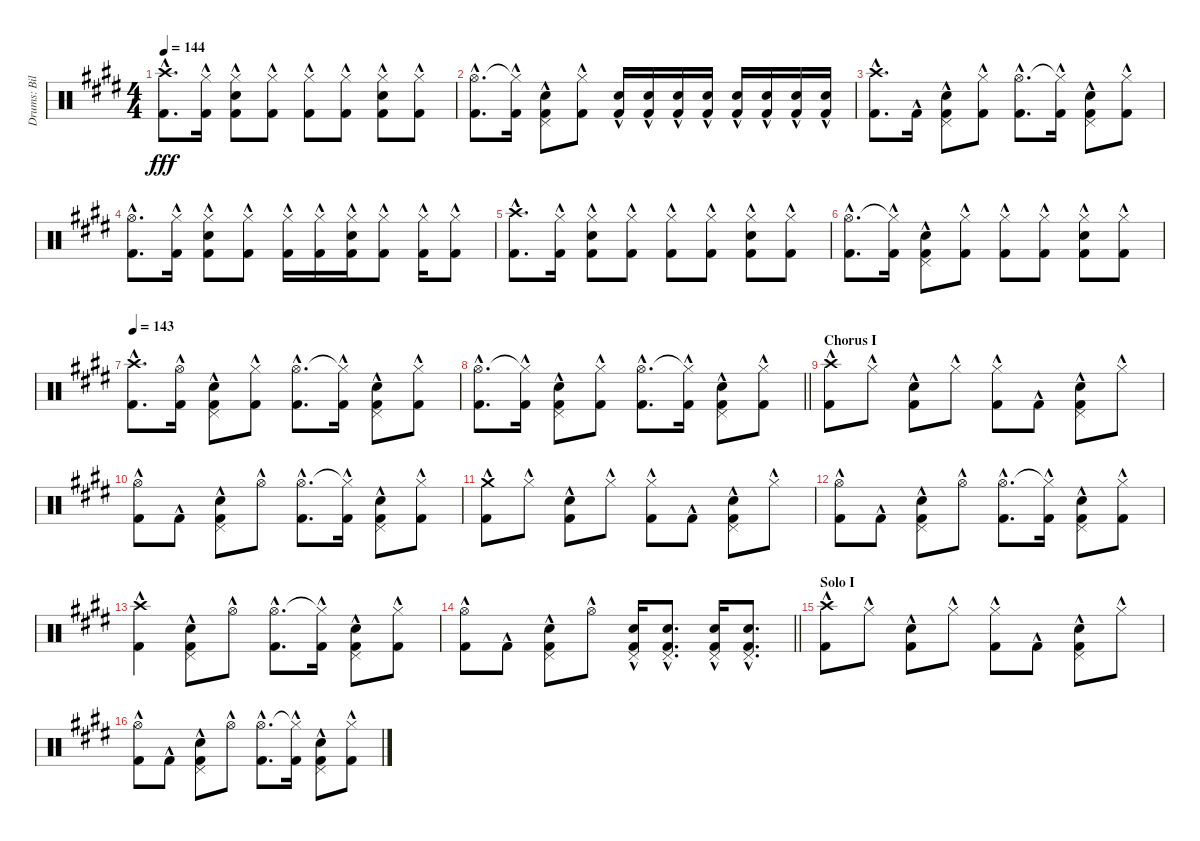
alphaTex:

\track ("Drums: Bill" "Drums: Bil") {instrument percussion}
\staff {score}
\articulation defaults
\ts (4 4)
\tempo 144
\clef neutral
\ks e
("Crash high (hit)"{hac} "Kick (hit) 2"{hac}).8{d dy fff} ("Hi-Hat (closed)"{hac} "Kick (hit) 2"{hac}).16 ("Hi-Hat (closed)"{hac} "Snare (hit) 2"{hac} "Kick (hit) 2"{hac}).8 ("Hi-Hat (closed)"{hac} "Kick (hit) 2"{hac}).8 ("Hi-Hat (closed)"{hac} "Kick (hit) 2"{hac}).8 ("Hi-Hat (closed)"{hac} "Kick (hit) 2"{hac}).8 ("Hi-Hat (closed)"{hac} "Snare (hit) 2"{hac} "Kick (hit) 2"{hac}).8 ("Hi-Hat (closed)"{hac} "Kick (hit) 2"{hac}).8 |
("Hi-Hat (open)"{hac} "Kick (hit) 2"{hac}).8{d} ("Hi-Hat (closed)"{t} "Kick (hit) 2"{hac}).16 ("Pedal Hi-Hat (hit)"{hac} "Snare (hit) 2"{hac} "Kick (hit) 2"{hac}).8 ("Hi-Hat (closed)"{hac} "Kick (hit) 2"{hac}).8 ("Snare (hit) 2"{hac} "Kick (hit) 2"{hac}).16 ("Snare (hit) 2"{hac} "Kick (hit) 2"{hac}).16 ("Snare (hit) 2"{hac} "Kick (hit) 2"{hac}).16 ("Snare (hit) 2"{hac} "Kick (hit) 2"{hac}).16 ("Snare (hit) 2"{hac} "Kick (hit) 2"{hac}).16 ("Snare (hit) 2"{hac} "Kick (hit) 2"{hac}).16 ("Snare (hit) 2"{hac} "Kick (hit) 2"{hac}).16 ("Snare (hit) 2"{hac} "Kick (hit) 2"{hac}).16 |
("Crash high (hit)"{hac} "Kick (hit) 2"{hac}).8{d} "Kick (hit) 2"{hac}.16 ("Pedal Hi-Hat (hit)"{hac} "Snare (hit) 2"{hac} "Kick (hit) 2"{hac}).8 ("Hi-Hat (closed)"{hac} "Kick (hit) 2"{hac}).8 ("Hi-Hat (open)"{hac} "Kick (hit) 2"{hac}).8{d} ("Hi-Hat (closed)"{t} "Kick (hit) 2"{hac}).16 ("Pedal Hi-Hat (hit)"{hac} "Snare (hit) 2"{hac} "Kick (hit) 2"{hac}).8 ("Hi-Hat (closed)"{hac} "Kick (hit) 2"{hac}).8 |
("Hi-Hat (open)"{hac} "Kick (hit) 2"{hac}).8{d} ("Hi-Hat (closed)"{hac} "Kick (hit) 2"{hac}).16 ("Hi-Hat (closed)"{hac} "Snare (hit) 2"{hac} "Kick (hit) 2"{hac}).8 ("Hi-Hat (closed)"{hac} "Kick (hit) 2"{hac}).8 ("Hi-Hat (closed)"{hac} "Kick (hit) 2"{hac}).16 ("Hi-Hat (closed)"{hac} "Kick (hit) 2"{hac}).16 ("Hi-Hat (closed)"{hac} "Snare (hit) 2"{hac} "Kick (hit) 2"{hac}).16 ("Hi-Hat (closed)"{hac} "Kick (hit) 2"{hac}).8 ("Hi-Hat (closed)"{hac} "Kick (hit) 2"{hac}).16 ("Hi-Hat (closed)"{hac} "Kick (hit) 2"{hac}).8 |
("Crash high (hit)"{hac} "Kick (hit) 2"{hac}).8{d} ("Hi-Hat (closed)"{hac} "Kick (hit) 2"{hac}).16 ("Hi-Hat (closed)"{hac} "Snare (hit) 2"{hac} "Kick (hit) 2"{hac}).8 ("Hi-Hat (closed)"{hac} "Kick (hit) 2"{hac}).8 ("Hi-Hat (closed)"{hac} "Kick (hit) 2"{hac}).8 ("Hi-Hat (closed)"{hac} "Kick (hit) 2"{hac}).8 ("Hi-Hat (closed)"{hac} "Snare (hit) 2"{hac} "Kick (hit) 2"{hac}).8 ("Hi-Hat (closed)"{hac} "Kick (hit) 2"{hac}).8 |
("Hi-Hat (open)"{hac} "Kick (hit) 2"{hac}).8{d} ("Hi-Hat (closed)"{t} "Kick (hit) 2"{hac}).16 ("Pedal Hi-Hat (hit)"{hac} "Snare (hit) 2"{hac} "Kick (hit) 2"{hac}).8 ("Hi-Hat (closed)"{hac} "Kick (hit) 2"{hac}).8 ("Hi-Hat (closed)"{hac} "Kick (hit) 2"{hac}).8 ("Hi-Hat (closed)"{hac} "Kick (hit) 2"{hac}).8 ("Hi-Hat (closed)"{hac} "Snare (hit) 2"{hac} "Kick (hit) 2"{hac}).8 ("Hi-Hat (closed)"{hac} "Kick (hit) 2"{hac}).8 |
\tempo 143
("Crash high (hit)"{hac} "Kick (hit) 2"{hac}).8{d} ("Hi-Hat (open)"{hac} "Kick (hit) 2"{hac}).16 ("Pedal Hi-Hat (hit)"{hac} "Snare (hit) 2"{hac} "Kick (hit) 2"{hac}).8 ("Hi-Hat (closed)"{hac} "Kick (hit) 2"{hac}).8 ("Hi-Hat (open)"{hac} "Kick (hit) 2"{hac}).8{d} ("Hi-Hat (closed)"{t} "Kick (hit) 2"{hac}).16 ("Pedal Hi-Hat (hit)"{hac} "Snare (hit) 2"{hac} "Kick (hit) 2"{hac}).8 ("Hi-Hat (closed)"{hac} "Kick (hit) 2"{hac}).8 |
\barLineRight lightlight
("Hi-Hat (open)"{hac} "Kick (hit) 2"{hac}).8{d} ("Hi-Hat (closed)"{t} "Kick (hit) 2"{hac}).16 ("Pedal Hi-Hat (hit)"{hac} "Snare (hit) 2"{hac} "Kick (hit) 2"{hac}).8 ("Hi-Hat (closed)"{hac} "Kick (hit) 2"{hac}).8 ("Hi-Hat (open)"{hac} "Kick (hit) 2"{hac}).8{d} ("Hi-Hat (closed)"{t} "Kick (hit) 2"{hac}).16 ("Pedal Hi-Hat (hit)"{hac} "Snare (hit) 2"{hac} "Kick (hit) 2"{hac}).8 ("Hi-Hat (closed)"{hac} "Kick (hit) 2"{hac}).8 |
\section ("" "Chorus I")
("Crash high (hit)"{hac} "Kick (hit) 2"{hac}).8 "Hi-Hat (closed)"{hac}.8 ("Snare (hit) 2"{hac} "Kick (hit) 2"{hac}).8 "Hi-Hat (closed)"{hac}.8 ("Hi-Hat (closed)"{hac} "Kick (hit) 2"{hac}).8 "Kick (hit) 2"{hac}.8 ("Pedal Hi-Hat (hit)"{hac} "Snare (hit) 2"{hac} "Kick (hit) 2"{hac}).8 "Hi-Hat (closed)"{hac}.8 |
("Hi-Hat (open)"{hac} "Kick (hit) 2"{hac}).8 "Kick (hit) 2"{hac}.8 ("Pedal Hi-Hat (hit)"{hac} "Snare (hit) 2"{hac} "Kick (hit) 2"{hac}).8 "Hi-Hat (open)"{hac}.8 ("Hi-Hat (open)"{hac} "Kick (hit) 2"{hac}).8{d} ("Hi-Hat (closed)"{t} "Kick (hit) 2"{hac}).16 ("Pedal Hi-Hat (hit)"{hac} "Snare (hit) 2"{hac} "Kick (hit) 2"{hac}).8 ("Hi-Hat (closed)"{hac} "Kick (hit) 2"{hac}).8 |
("Crash medium (hit)"{hac} "Kick (hit) 2"{hac}).8 "Hi-Hat (closed)"{hac}.8 ("Snare (hit) 2"{hac} "Kick (hit) 2"{hac}).8 "Hi-Hat (closed)"{hac}.8 ("Hi-Hat (closed)"{hac} "Kick (hit) 2"{hac}).8 "Kick (hit) 2"{hac}.8 ("Pedal Hi-Hat (hit)"{hac} "Snare (hit) 2"{hac} "Kick (hit) 2"{hac}).8 "Hi-Hat (closed)"{hac}.8 |
("Hi-Hat (open)"{hac} "Kick (hit) 2"{hac}).8 "Kick (hit) 2"{hac}.8 ("Pedal Hi-Hat (hit)"{hac} "Snare (hit) 2"{hac} "Kick (hit) 2"{hac}).8 "Hi-Hat (open)"{hac}.8 ("Hi-Hat (open)"{hac} "Kick (hit) 2"{hac}).8{d} ("Hi-Hat (closed)"{t} "Kick (hit) 2"{hac}).16 ("Pedal Hi-Hat (hit)"{hac} "Snare (hit) 2"{hac} "Kick (hit) 2"{hac}).8 ("Hi-Hat (closed)"{hac} "Kick (hit) 2"{hac}).8 |
("Crash high (hit)"{hac} "Kick (hit) 2"{hac}).4 ("Pedal Hi-Hat (hit)"{hac} "Snare (hit) 2"{hac} "Kick (hit) 2"{hac}).8 "Hi-Hat (open)"{hac}.8 ("Hi-Hat (open)"{hac} "Kick (hit) 2"{hac}).8{d} ("Hi-Hat (closed)"{t} "Kick (hit) 2"{hac}).16 ("Pedal Hi-Hat (hit)"{hac} "Snare (hit) 2"{hac} "Kick (hit) 2"{hac}).8 ("Hi-Hat (closed)"{hac} "Kick (hit) 2"{hac}).8 |
\barLineRight lightlight
("Hi-Hat (open)"{hac} "Kick (hit) 2"{hac}).8 "Kick (hit) 2"{hac}.8 ("Pedal Hi-Hat (hit)"{hac} "Snare (hit) 2"{hac} "Kick (hit) 2"{hac}).8 "Hi-Hat (open)"{hac}.8 ("Pedal Hi-Hat (hit)"{hac} "Snare (hit) 2"{hac} "Kick (hit) 2"{hac}).16 ("Pedal Hi-Hat (hit)"{hac} "Snare (hit) 2"{hac} "Kick (hit) 2"{hac}).8{d} ("Pedal Hi-Hat (hit)"{hac} "Snare (hit) 2"{hac} "Kick (hit) 2"{hac}).16 ("Pedal Hi-Hat (hit)"{hac} "Snare (hit) 2"{hac} "Kick (hit) 2"{hac}).8{d} |
\section ("" "Solo I")
("Crash high (hit)"{hac} "Kick (hit) 2"{hac}).8 "Hi-Hat (closed)"{hac}.8 ("Snare (hit) 2"{hac} "Kick (hit) 2"{hac}).8 "Hi-Hat (closed)"{hac}.8 ("Hi-Hat (closed)"{hac} "Kick (hit) 2"{hac}).8 "Kick (hit) 2"{hac}.8 ("Pedal Hi-Hat (hit)"{hac} "Snare (hit) 2"{hac} "Kick (hit) 2"{hac}).8 "Hi-Hat (closed)"{hac}.8 |
("Hi-Hat (open)"{hac} "Kick (hit) 2"{hac}).8 "Kick (hit) 2"{hac}.8 ("Pedal Hi-Hat (hit)"{hac} "Snare (hit) 2"{hac} "Kick (hit) 2"{hac}).8 "Hi-Hat (open)"{hac}.8 ("Hi-Hat (open)"{hac} "Kick (hit) 2"{hac}).8{d} ("Hi-Hat (closed)"{t} "Kick (hit) 2"{hac}).16 ("Pedal Hi-Hat (hit)"{hac} "Snare (hit) 2"{hac} "Kick (hit) 2"{hac}).8 ("Hi-Hat (closed)"{hac} "Kick (hit) 2"{hac}).8
